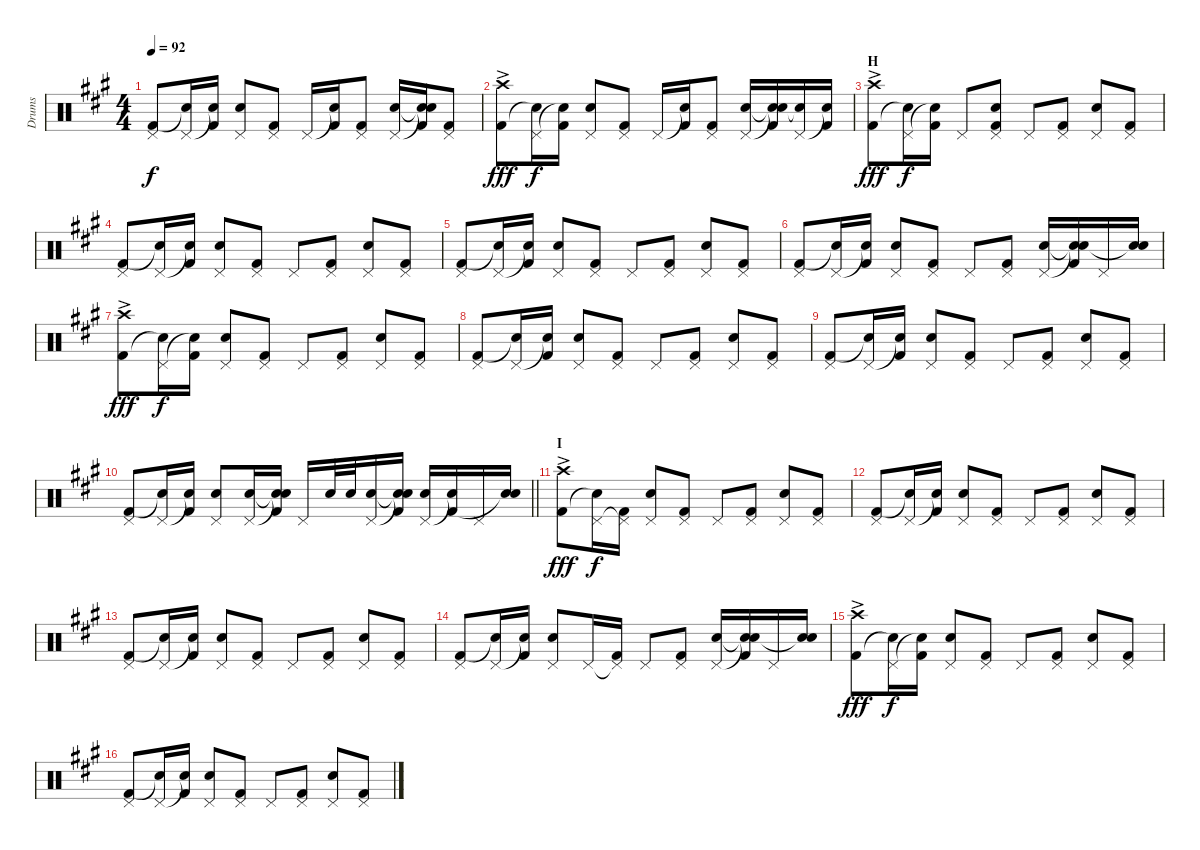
\track ("Drums" "Drums") {instrument percussion}
\staff {score}
\articulation defaults
\ts (4 4)
\tempo 92
\clef neutral
\ks a
("Pedal Hi-Hat (hit)" "Kick (hit) 2").8{dy f} ("Pedal Hi-Hat (hit)" "Snare (hit)"{t}).16 ("Snare (hit)"{t} "Kick (hit) 2").16 ("Pedal Hi-Hat (hit)" "Electric Snare (hit)").8 ("Pedal Hi-Hat (hit)" "Kick (hit) 2").8 "Pedal Hi-Hat (hit)".16 ("Snare (hit)"{t} "Kick (hit) 2").16 ("Pedal Hi-Hat (hit)" "Kick (hit) 2").8 ("Pedal Hi-Hat (hit)" "Electric Snare (hit)").16 ("Snare (hit)"{t} "Snare (hit)"{t} "Kick (hit) 2").16 ("Pedal Hi-Hat (hit)" "Kick (hit) 2").8 |
("Crash high (hit)"{ac} "Kick (hit) 2").8{dy fff} ("Pedal Hi-Hat (hit)" "Snare (hit)"{t}).16{dy f} ("Snare (hit)"{t} "Kick (hit) 2").16 ("Pedal Hi-Hat (hit)" "Electric Snare (hit)").8 ("Pedal Hi-Hat (hit)" "Kick (hit) 2").8 "Pedal Hi-Hat (hit)".16 ("Snare (hit)"{t} "Kick (hit) 2").16 ("Pedal Hi-Hat (hit)" "Kick (hit) 2").8 ("Pedal Hi-Hat (hit)" "Electric Snare (hit)").16 ("Snare (hit)"{t} "Snare (hit)"{t} "Kick (hit) 2").16 ("Pedal Hi-Hat (hit)" "Snare (hit)"{t}).16 ("Snare (hit)"{t} "Kick (hit) 2").16 |
\section ("" "H")
("Crash high (hit)"{ac} "Kick (hit) 2").8{dy fff} ("Pedal Hi-Hat (hit)" "Snare (hit)"{t}).16{dy f} ("Snare (hit)"{t} "Kick (hit) 2").16 "Pedal Hi-Hat (hit)".8 ("Pedal Hi-Hat (hit)" "Electric Snare (hit)" "Kick (hit) 2").8 "Pedal Hi-Hat (hit)".8 ("Pedal Hi-Hat (hit)" "Kick (hit) 2").8 ("Pedal Hi-Hat (hit)" "Electric Snare (hit)").8 ("Pedal Hi-Hat (hit)" "Kick (hit) 2").8 |
("Pedal Hi-Hat (hit)" "Kick (hit) 2").8 ("Pedal Hi-Hat (hit)" "Snare (hit)"{t}).16 ("Snare (hit)"{t} "Kick (hit) 2").16 ("Pedal Hi-Hat (hit)" "Electric Snare (hit)").8 ("Pedal Hi-Hat (hit)" "Kick (hit) 2").8 "Pedal Hi-Hat (hit)".8 ("Pedal Hi-Hat (hit)" "Kick (hit) 2").8 ("Pedal Hi-Hat (hit)" "Electric Snare (hit)").8 ("Pedal Hi-Hat (hit)" "Kick (hit) 2").8 |
("Pedal Hi-Hat (hit)" "Kick (hit) 2").8 ("Pedal Hi-Hat (hit)" "Snare (hit)"{t}).16 ("Snare (hit)"{t} "Kick (hit) 2").16 ("Pedal Hi-Hat (hit)" "Electric Snare (hit)").8 ("Pedal Hi-Hat (hit)" "Kick (hit) 2").8 "Pedal Hi-Hat (hit)".8 ("Pedal Hi-Hat (hit)" "Kick (hit) 2").8 ("Pedal Hi-Hat (hit)" "Electric Snare (hit)").8 ("Pedal Hi-Hat (hit)" "Kick (hit) 2").8 |
("Pedal Hi-Hat (hit)" "Kick (hit) 2").8 ("Pedal Hi-Hat (hit)" "Snare (hit)"{t}).16 ("Snare (hit)"{t} "Kick (hit) 2").16 ("Pedal Hi-Hat (hit)" "Electric Snare (hit)").8 ("Pedal Hi-Hat (hit)" "Kick (hit) 2").8 "Pedal Hi-Hat (hit)".8 ("Pedal Hi-Hat (hit)" "Kick (hit) 2").8 ("Pedal Hi-Hat (hit)" "Electric Snare (hit)").16 ("Snare (hit)"{t} "Snare (hit)"{t} "Kick (hit) 2").16 "Pedal Hi-Hat (hit)".16 ("Electric Snare (hit)" "Snare (hit)"{t}).16 |
("Crash high (hit)"{ac} "Kick (hit) 2").8{dy fff} ("Pedal Hi-Hat (hit)" "Snare (hit)"{t}).16{dy f} ("Snare (hit)"{t} "Kick (hit) 2").16 ("Pedal Hi-Hat (hit)" "Electric Snare (hit)").8 ("Pedal Hi-Hat (hit)" "Kick (hit) 2").8 "Pedal Hi-Hat (hit)".8 ("Pedal Hi-Hat (hit)" "Kick (hit) 2").8 ("Pedal Hi-Hat (hit)" "Electric Snare (hit)").8 ("Pedal Hi-Hat (hit)" "Kick (hit) 2").8 |
("Pedal Hi-Hat (hit)" "Kick (hit) 2").8 ("Pedal Hi-Hat (hit)" "Snare (hit)"{t}).16 ("Snare (hit)"{t} "Kick (hit) 2").16 ("Pedal Hi-Hat (hit)" "Electric Snare (hit)").8 ("Pedal Hi-Hat (hit)" "Kick (hit) 2").8 "Pedal Hi-Hat (hit)".8 ("Pedal Hi-Hat (hit)" "Kick (hit) 2").8 ("Pedal Hi-Hat (hit)" "Electric Snare (hit)").8 ("Pedal Hi-Hat (hit)" "Kick (hit) 2").8 |
("Pedal Hi-Hat (hit)" "Kick (hit) 2").8 ("Pedal Hi-Hat (hit)" "Snare (hit)"{t}).16 ("Snare (hit)"{t} "Kick (hit) 2").16 ("Pedal Hi-Hat (hit)" "Electric Snare (hit)").8 ("Pedal Hi-Hat (hit)" "Kick (hit) 2").8 "Pedal Hi-Hat (hit)".8 ("Pedal Hi-Hat (hit)" "Kick (hit) 2").8 ("Pedal Hi-Hat (hit)" "Electric Snare (hit)").8 ("Pedal Hi-Hat (hit)" "Kick (hit) 2").8 |
\barLineRight lightlight
("Pedal Hi-Hat (hit)" "Kick (hit) 2").8 ("Pedal Hi-Hat (hit)" "Snare (hit)"{t}).16 ("Snare (hit)"{t} "Kick (hit) 2").16 ("Pedal Hi-Hat (hit)" "Electric Snare (hit)").8 ("Pedal Hi-Hat (hit)" "Electric Snare (hit)").16 ("Snare (hit)"{t} "Snare (hit)"{t} "Kick (hit) 2").16 "Pedal Hi-Hat (hit)".16 "Electric Snare (hit)".32 "Electric Snare (hit)".32 ("Pedal Hi-Hat (hit)" "Electric Snare (hit)").16 ("Snare (hit)"{t} "Snare (hit)"{t} "Kick (hit) 2").16 ("Pedal Hi-Hat (hit)" "Electric Snare (hit)").16 ("Snare (hit)"{t} "Kick (hit) 2").16 "Pedal Hi-Hat (hit)".16 ("Electric Snare (hit)" "Snare (hit)"{t}).16 |
\section ("" "I")
("Crash high (hit)"{ac} "Kick (hit) 2").8{dy fff} ("Pedal Hi-Hat (hit)" "Snare (hit)"{t}).16{dy f} ("Pedal Hi-Hat (hit)"{t} "Kick (hit) 2").16 ("Pedal Hi-Hat (hit)" "Electric Snare (hit)").8 ("Pedal Hi-Hat (hit)" "Kick (hit) 2").8 "Pedal Hi-Hat (hit)".8 ("Pedal Hi-Hat (hit)" "Kick (hit) 2").8 ("Pedal Hi-Hat (hit)" "Electric Snare (hit)").8 ("Pedal Hi-Hat (hit)" "Kick (hit) 2").8 |
("Pedal Hi-Hat (hit)" "Kick (hit) 2").8 ("Pedal Hi-Hat (hit)" "Snare (hit)"{t}).16 ("Snare (hit)"{t} "Kick (hit) 2").16 ("Pedal Hi-Hat (hit)" "Electric Snare (hit)").8 ("Pedal Hi-Hat (hit)" "Kick (hit) 2").8 "Pedal Hi-Hat (hit)".8 ("Pedal Hi-Hat (hit)" "Kick (hit) 2").8 ("Pedal Hi-Hat (hit)" "Electric Snare (hit)").8 ("Pedal Hi-Hat (hit)" "Kick (hit) 2").8 |
("Pedal Hi-Hat (hit)" "Kick (hit) 2").8 ("Pedal Hi-Hat (hit)" "Snare (hit)"{t}).16 ("Snare (hit)"{t} "Kick (hit) 2").16 ("Pedal Hi-Hat (hit)" "Electric Snare (hit)").8 ("Pedal Hi-Hat (hit)" "Kick (hit) 2").8 "Pedal Hi-Hat (hit)".8 ("Pedal Hi-Hat (hit)" "Kick (hit) 2").8 ("Pedal Hi-Hat (hit)" "Electric Snare (hit)").8 ("Pedal Hi-Hat (hit)" "Kick (hit) 2").8 |
("Pedal Hi-Hat (hit)" "Kick (hit) 2").8 ("Pedal Hi-Hat (hit)" "Snare (hit)"{t}).16 ("Snare (hit)"{t} "Kick (hit) 2").16 ("Pedal Hi-Hat (hit)" "Electric Snare (hit)").8 "Pedal Hi-Hat (hit)".16 ("Pedal Hi-Hat (hit)"{t} "Kick (hit) 2").16 "Pedal Hi-Hat (hit)".8 ("Pedal Hi-Hat (hit)" "Kick (hit) 2").8 ("Pedal Hi-Hat (hit)" "Electric Snare (hit)").16 ("Snare (hit)"{t} "Snare (hit)"{t} "Kick (hit) 2").16 "Pedal Hi-Hat (hit)".16 ("Electric Snare (hit)" "Snare (hit)"{t}).16 |
("Crash high (hit)"{ac} "Kick (hit) 2").8{dy fff} ("Pedal Hi-Hat (hit)" "Snare (hit)"{t}).16{dy f} ("Snare (hit)"{t} "Kick (hit) 2").16 ("Pedal Hi-Hat (hit)" "Electric Snare (hit)").8 ("Pedal Hi-Hat (hit)" "Kick (hit) 2").8 "Pedal Hi-Hat (hit)".8 ("Pedal Hi-Hat (hit)" "Kick (hit) 2").8 ("Pedal Hi-Hat (hit)" "Electric Snare (hit)").8 ("Pedal Hi-Hat (hit)" "Kick (hit) 2").8 |
("Pedal Hi-Hat (hit)" "Kick (hit) 2").8 ("Pedal Hi-Hat (hit)" "Snare (hit)"{t}).16 ("Snare (hit)"{t} "Kick (hit) 2").16 ("Pedal Hi-Hat (hit)" "Electric Snare (hit)").8 ("Pedal Hi-Hat (hit)" "Kick (hit) 2").8 "Pedal Hi-Hat (hit)".8 ("Pedal Hi-Hat (hit)" "Kick (hit) 2").8 ("Pedal Hi-Hat (hit)" "Electric Snare (hit)").8 ("Pedal Hi-Hat (hit)" "Kick (hit) 2").8
